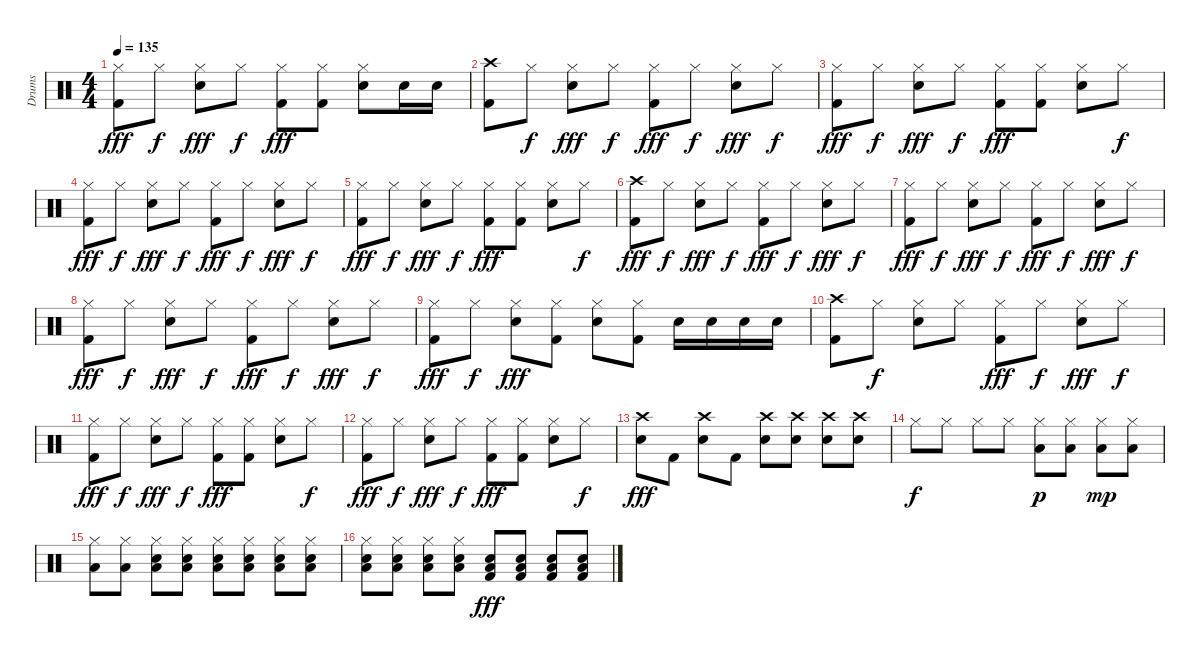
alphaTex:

\track ("Drums" "Drums") {instrument percussion}
\staff {score}
\articulation defaults
\ts (4 4)
\tempo 135
\clef neutral
\ks c
("Hi-Hat (closed)" "Kick (hit) 2").8{dy fff} "Hi-Hat (closed)".8{dy f} ("Hi-Hat (closed)" "Snare (hit) 2").8{dy fff} "Hi-Hat (closed)".8{dy f} ("Hi-Hat (closed)" "Kick (hit) 2").8{dy fff} ("Hi-Hat (closed)" "Kick (hit) 2").8 ("Hi-Hat (closed)" "Snare (hit) 2").8 "Snare (hit) 2".16 "Snare (hit) 2".16 |
("Crash high (hit)" "Kick (hit) 2").8 "Hi-Hat (closed)".8{dy f} ("Hi-Hat (closed)" "Snare (hit) 2").8{dy fff} "Hi-Hat (closed)".8{dy f} ("Hi-Hat (closed)" "Kick (hit) 2").8{dy fff} "Hi-Hat (closed)".8{dy f} ("Hi-Hat (closed)" "Snare (hit) 2").8{dy fff} "Hi-Hat (closed)".8{dy f} |
("Hi-Hat (closed)" "Kick (hit) 2").8{dy fff} "Hi-Hat (closed)".8{dy f} ("Hi-Hat (closed)" "Snare (hit) 2").8{dy fff} "Hi-Hat (closed)".8{dy f} ("Hi-Hat (closed)" "Kick (hit) 2").8{dy fff} ("Hi-Hat (closed)" "Kick (hit) 2").8 ("Hi-Hat (closed)" "Snare (hit) 2").8 "Hi-Hat (closed)".8{dy f} |
("Hi-Hat (closed)" "Kick (hit) 2").8{dy fff} "Hi-Hat (closed)".8{dy f} ("Hi-Hat (closed)" "Snare (hit) 2").8{dy fff} "Hi-Hat (closed)".8{dy f} ("Hi-Hat (closed)" "Kick (hit) 2").8{dy fff} "Hi-Hat (closed)".8{dy f} ("Hi-Hat (closed)" "Snare (hit) 2").8{dy fff} "Hi-Hat (closed)".8{dy f} |
("Hi-Hat (closed)" "Kick (hit) 2").8{dy fff} "Hi-Hat (closed)".8{dy f} ("Hi-Hat (closed)" "Snare (hit) 2").8{dy fff} "Hi-Hat (closed)".8{dy f} ("Hi-Hat (closed)" "Kick (hit) 2").8{dy fff} ("Hi-Hat (closed)" "Kick (hit) 2").8 ("Hi-Hat (closed)" "Snare (hit) 2").8 "Hi-Hat (closed)".8{dy f} |
("Crash high (hit)" "Kick (hit) 2").8{dy fff} "Hi-Hat (closed)".8{dy f} ("Hi-Hat (closed)" "Snare (hit) 2").8{dy fff} "Hi-Hat (closed)".8{dy f} ("Hi-Hat (closed)" "Kick (hit) 2").8{dy fff} "Hi-Hat (closed)".8{dy f} ("Hi-Hat (closed)" "Snare (hit) 2").8{dy fff} "Hi-Hat (closed)".8{dy f} |
("Hi-Hat (closed)" "Kick (hit) 2").8{dy fff} "Hi-Hat (closed)".8{dy f} ("Hi-Hat (closed)" "Snare (hit) 2").8{dy fff} "Hi-Hat (closed)".8{dy f} ("Hi-Hat (closed)" "Kick (hit) 2").8{dy fff} "Hi-Hat (closed)".8{dy f} ("Hi-Hat (closed)" "Snare (hit) 2").8{dy fff} "Hi-Hat (closed)".8{dy f} |
("Hi-Hat (closed)" "Kick (hit) 2").8{dy fff} "Hi-Hat (closed)".8{dy f} ("Hi-Hat (closed)" "Snare (hit) 2").8{dy fff} "Hi-Hat (closed)".8{dy f} ("Hi-Hat (closed)" "Kick (hit) 2").8{dy fff} "Hi-Hat (closed)".8{dy f} ("Hi-Hat (closed)" "Snare (hit) 2").8{dy fff} "Hi-Hat (closed)".8{dy f} |
("Hi-Hat (closed)" "Kick (hit) 2").8{dy fff} "Hi-Hat (closed)".8{dy f} ("Hi-Hat (closed)" "Snare (hit) 2").8{dy fff} ("Hi-Hat (closed)" "Kick (hit) 2").8 ("Hi-Hat (closed)" "Snare (hit) 2").8 ("Hi-Hat (closed)" "Kick (hit) 2").8 "Snare (hit) 2".16 "Snare (hit) 2".16 "Snare (hit) 2".16 "Snare (hit) 2".16 |
("Crash high (hit)" "Kick (hit) 2").8 "Hi-Hat (closed)".8{dy f} ("Hi-Hat (closed)" "Snare (hit) 2").8 "Hi-Hat (closed)".8 ("Hi-Hat (closed)" "Kick (hit) 2").8{dy fff} "Hi-Hat (closed)".8{dy f} ("Hi-Hat (closed)" "Snare (hit) 2").8{dy fff} "Hi-Hat (closed)".8{dy f} |
("Hi-Hat (closed)" "Kick (hit) 2").8{dy fff} "Hi-Hat (closed)".8{dy f} ("Hi-Hat (closed)" "Snare (hit) 2").8{dy fff} "Hi-Hat (closed)".8{dy f} ("Hi-Hat (closed)" "Kick (hit) 2").8{dy fff} ("Hi-Hat (closed)" "Kick (hit) 2").8 ("Hi-Hat (closed)" "Snare (hit) 2").8 "Hi-Hat (closed)".8{dy f} |
("Hi-Hat (closed)" "Kick (hit) 2").8{dy fff} "Hi-Hat (closed)".8{dy f} ("Hi-Hat (closed)" "Snare (hit) 2").8{dy fff} "Hi-Hat (closed)".8{dy f} ("Hi-Hat (closed)" "Kick (hit) 2").8{dy fff} ("Hi-Hat (closed)" "Kick (hit) 2").8 ("Hi-Hat (closed)" "Snare (hit) 2").8 "Hi-Hat (closed)".8{dy f} |
("Crash high (hit)" "Snare (hit) 2").8{dy fff} "Kick (hit) 2".8 ("Crash high (hit)" "Snare (hit) 2").8 "Kick (hit) 2".8 ("Crash high (hit)" "Snare (hit) 2").8 ("Crash high (hit)" "Snare (hit) 2").8 ("Crash high (hit)" "Snare (hit) 2").8 ("Crash high (hit)" "Snare (hit) 2").8 |
"Hi-Hat (closed)".8{dy f} "Hi-Hat (closed)".8 "Hi-Hat (closed)".8 "Hi-Hat (closed)".8 ("Hi-Hat (closed)" "Low Floor Tom (hit)").8{dy p} ("Hi-Hat (closed)" "Low Floor Tom (hit)").8 ("Hi-Hat (closed)" "Low Floor Tom (hit)").8{dy mp} ("Hi-Hat (closed)" "Low Floor Tom (hit)").8 |
("Hi-Hat (closed)" "Low Floor Tom (hit)").8 ("Hi-Hat (closed)" "Low Floor Tom (hit)").8 ("Hi-Hat (closed)" "Snare (hit) 2" "Low Floor Tom (hit)").8 ("Hi-Hat (closed)" "Snare (hit) 2" "Low Floor Tom (hit)").8 ("Hi-Hat (closed)" "Snare (hit) 2" "Low Floor Tom (hit)").8 ("Hi-Hat (closed)" "Snare (hit) 2" "Low Floor Tom (hit)").8 ("Hi-Hat (closed)" "Snare (hit) 2" "Low Floor Tom (hit)").8 ("Hi-Hat (closed)" "Snare (hit) 2" "Low Floor Tom (hit)").8 |
("Hi-Hat (closed)" "Snare (hit) 2" "Low Floor Tom (hit)").8 ("Hi-Hat (closed)" "Snare (hit) 2" "Low Floor Tom (hit)").8 ("Hi-Hat (closed)" "Snare (hit) 2" "Low Floor Tom (hit)").8 ("Hi-Hat (closed)" "Snare (hit) 2" "Low Floor Tom (hit)").8 ("Snare (hit) 2" "Low Floor Tom (hit)" "Kick (hit) 2").8{dy fff} ("Snare (hit) 2" "Low Floor Tom (hit)" "Kick (hit) 2").8 ("Snare (hit) 2" "Low Floor Tom (hit)" "Kick (hit) 2").8 ("Snare (hit) 2" "Low Floor Tom (hit)" "Kick (hit) 2").8
